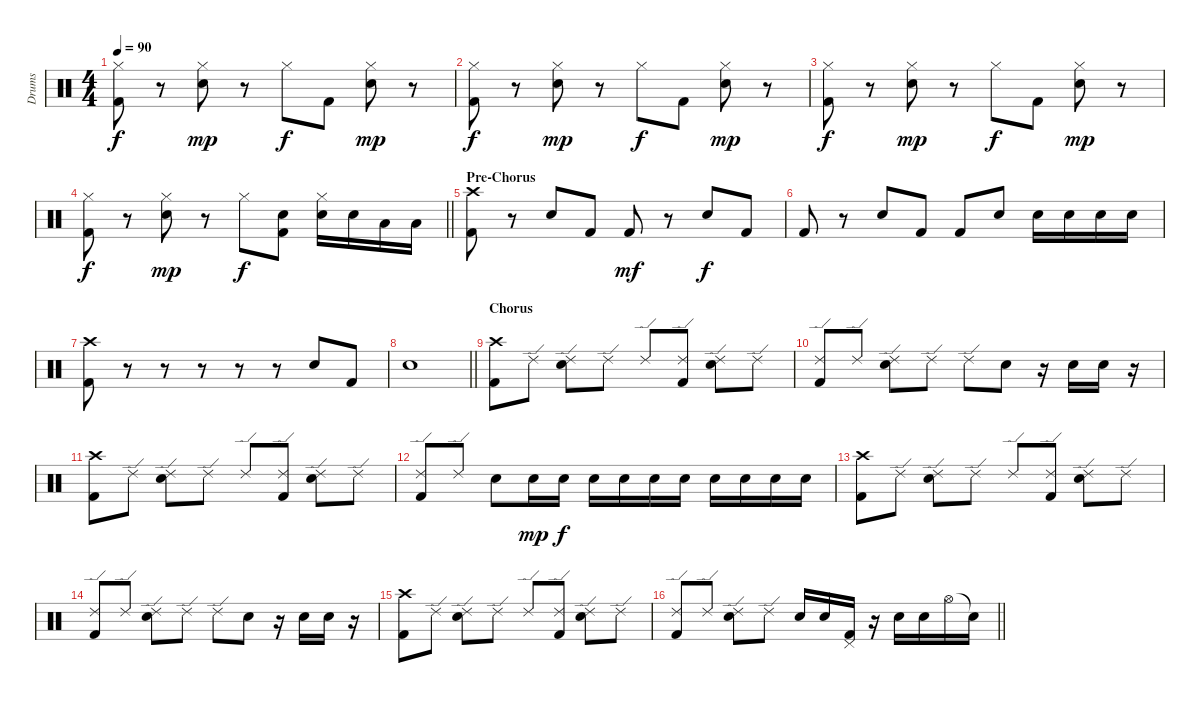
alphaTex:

\track ("Drums" "Drums") {instrument percussion}
\staff {score}
\articulation defaults
\ts (4 4)
\tempo 90
\clef neutral
\ks c
("Hi-Hat (closed)" "Kick (hit) 2").8{dy f} r.8 ("Hi-Hat (closed)" "Electric Snare (hit)").8{dy mp} r.8 "Hi-Hat (closed)".8{dy f} "Kick (hit) 2".8 ("Hi-Hat (closed)" "Electric Snare (hit)").8{dy mp} r.8 |
("Hi-Hat (closed)" "Kick (hit) 2").8{dy f} r.8 ("Hi-Hat (closed)" "Electric Snare (hit)").8{dy mp} r.8 "Hi-Hat (closed)".8{dy f} "Kick (hit) 2".8 ("Hi-Hat (closed)" "Electric Snare (hit)").8{dy mp} r.8 |
("Hi-Hat (closed)" "Kick (hit) 2").8{dy f} r.8 ("Hi-Hat (closed)" "Electric Snare (hit)").8{dy mp} r.8 "Hi-Hat (closed)".8{dy f} "Kick (hit) 2".8 ("Hi-Hat (closed)" "Electric Snare (hit)").8{dy mp} r.8 |
\barLineRight lightlight
("Hi-Hat (closed)" "Kick (hit) 2").8{dy f} r.8 ("Hi-Hat (closed)" "Electric Snare (hit)").8{dy mp} r.8 "Hi-Hat (closed)".8{dy f} ("Electric Snare (hit)" "Kick (hit) 2").8 ("Hi-Hat (closed)" "Electric Snare (hit)").16 "Electric Snare (hit)".16 "Low Tom (hit)".16 "Low Tom (hit)".16 |
\section ("" "Pre-Chorus")
("Crash high (hit)" "Kick (hit) 2").8 r.8 "Electric Snare (hit)".8 "Kick (hit) 2".8 "Kick (hit) 2".8{dy mf} r.8 "Electric Snare (hit)".8{dy f} "Kick (hit) 2".8 |
"Kick (hit) 2".8 r.8 "Electric Snare (hit)".8 "Kick (hit) 2".8 "Kick (hit) 2".8 "Electric Snare (hit)".8 "Electric Snare (hit)".16 "Electric Snare (hit)".16 "Electric Snare (hit)".16 "Electric Snare (hit)".16 |
("Crash high (hit)" "Kick (hit) 2").8 r.8 r.8 r.8 r.8 r.8 "Electric Snare (hit)".8 "Kick (hit) 2".8 |
\barLineRight lightlight "Electric Snare (hit)".1
|
\section ("" "Chorus")
("Crash high (hit)" "Kick (hit) 2").8 "Ride (edge) 2".8 ("Ride (edge) 2" "Electric Snare (hit)").8 "Ride (edge) 2".8 "Ride (edge) 2".8 ("Ride (edge) 2" "Kick (hit) 2").8 ("Ride (edge) 2" "Electric Snare (hit)").8 "Ride (edge) 2".8 |
("Ride (edge) 2" "Kick (hit) 2").8 "Ride (edge) 2".8 ("Ride (edge) 2" "Electric Snare (hit)").8 "Ride (edge) 2".8 "Ride (edge) 2".8 "Electric Snare (hit)".8 r.16 "Electric Snare (hit)".16 "Electric Snare (hit)".16 r.16 |
("Crash high (hit)" "Kick (hit) 2").8 "Ride (edge) 2".8 ("Ride (edge) 2" "Electric Snare (hit)").8 "Ride (edge) 2".8 "Ride (edge) 2".8 ("Ride (edge) 2" "Kick (hit) 2").8 ("Ride (edge) 2" "Electric Snare (hit)").8 "Ride (edge) 2".8 |
("Ride (edge) 2" "Kick (hit) 2").8 "Ride (edge) 2".8 "Electric Snare (hit)".8 "Electric Snare (hit)".16{dy mp} "Electric Snare (hit)".16{dy f} "Electric Snare (hit)".16 "Electric Snare (hit)".16 "Electric Snare (hit)".16 "Electric Snare (hit)".16 "Electric Snare (hit)".16 "Electric Snare (hit)".16 "Electric Snare (hit)".16 "Electric Snare (hit)".16 |
("Crash high (hit)" "Kick (hit) 2").8 "Ride (edge) 2".8 ("Ride (edge) 2" "Electric Snare (hit)").8 "Ride (edge) 2".8 "Ride (edge) 2".8 ("Ride (edge) 2" "Kick (hit) 2").8 ("Ride (edge) 2" "Electric Snare (hit)").8 "Ride (edge) 2".8 |
("Ride (edge) 2" "Kick (hit) 2").8 "Ride (edge) 2".8 ("Ride (edge) 2" "Electric Snare (hit)").8 "Ride (edge) 2".8 "Ride (edge) 2".8 "Electric Snare (hit)".8 r.16 "Electric Snare (hit)".16 "Electric Snare (hit)".16 r.16 |
("Crash high (hit)" "Kick (hit) 2").8 "Ride (edge) 2".8 ("Ride (edge) 2" "Electric Snare (hit)").8 "Ride (edge) 2".8 "Ride (edge) 2".8 ("Ride (edge) 2" "Kick (hit) 2").8 ("Ride (edge) 2" "Electric Snare (hit)").8 "Ride (edge) 2".8 |
\barLineRight lightlight
("Ride (edge) 2" "Kick (hit) 2").8 "Ride (edge) 2".8 ("Ride (edge) 2" "Electric Snare (hit)").8 "Ride (edge) 2".8 "Electric Snare (hit)".16 "Electric Snare (hit)".16 ("Pedal Hi-Hat (hit)" "Kick (hit) 2").16 r.16 "Electric Snare (hit)".16 "Electric Snare (hit)".16 "Hi-Hat (open)".16 "Snare (hit)"{t}.16
